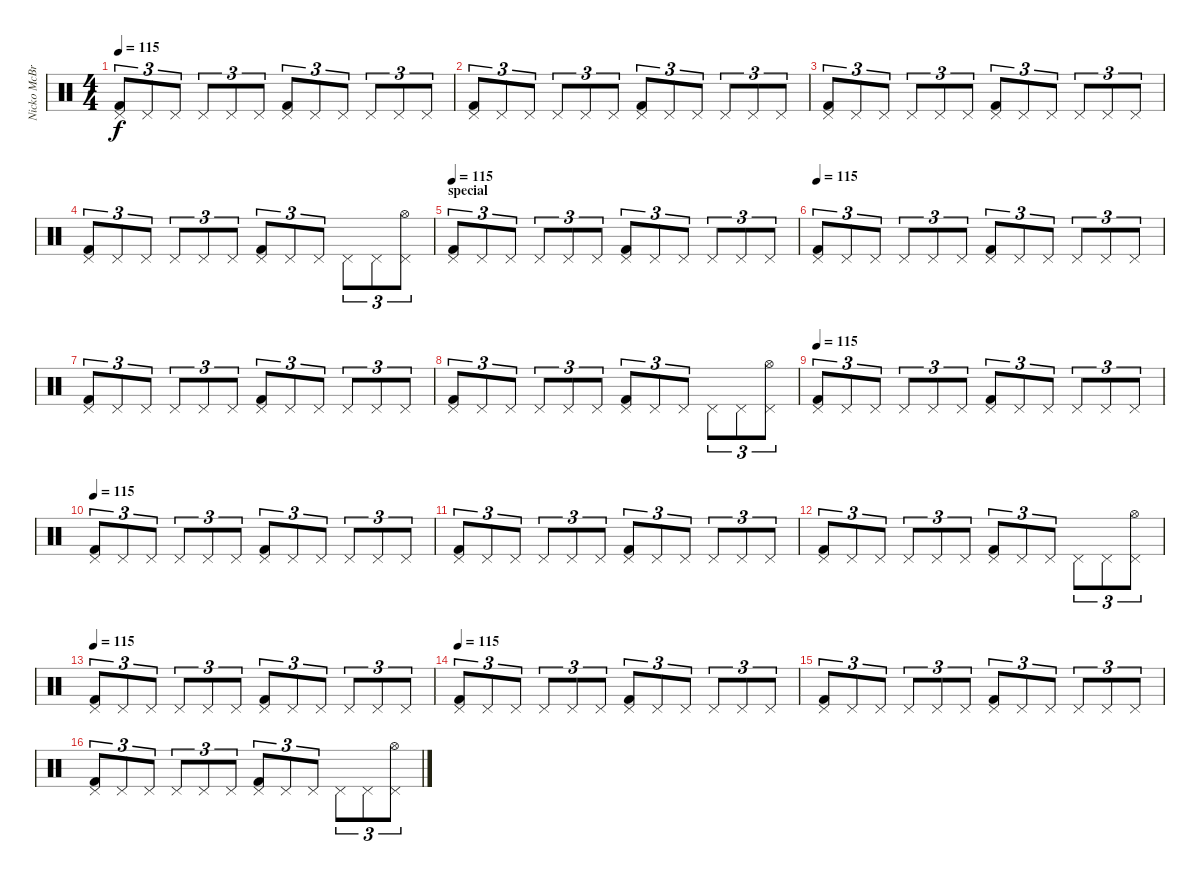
\track ("Nicko McBrain" "Nicko McBr") {instrument percussion}
\staff {score}
\articulation defaults
\ts (4 4)
\tempo 115
\clef neutral
\ks c
("Pedal Hi-Hat (hit)" "Kick (hit) 2").8{tu (3 2) dy f} "Pedal Hi-Hat (hit)".8{tu (3 2)} "Pedal Hi-Hat (hit)".8{tu (3 2)} "Pedal Hi-Hat (hit)".8{tu (3 2)} "Pedal Hi-Hat (hit)".8{tu (3 2)} "Pedal Hi-Hat (hit)".8{tu (3 2)} ("Pedal Hi-Hat (hit)" "Kick (hit) 2").8{tu (3 2)} "Pedal Hi-Hat (hit)".8{tu (3 2)} "Pedal Hi-Hat (hit)".8{tu (3 2)} "Pedal Hi-Hat (hit)".8{tu (3 2)} "Pedal Hi-Hat (hit)".8{tu (3 2)} "Pedal Hi-Hat (hit)".8{tu (3 2)} |
("Pedal Hi-Hat (hit)" "Kick (hit) 2").8{tu (3 2)} "Pedal Hi-Hat (hit)".8{tu (3 2)} "Pedal Hi-Hat (hit)".8{tu (3 2)} "Pedal Hi-Hat (hit)".8{tu (3 2)} "Pedal Hi-Hat (hit)".8{tu (3 2)} "Pedal Hi-Hat (hit)".8{tu (3 2)} ("Pedal Hi-Hat (hit)" "Kick (hit) 2").8{tu (3 2)} "Pedal Hi-Hat (hit)".8{tu (3 2)} "Pedal Hi-Hat (hit)".8{tu (3 2)} "Pedal Hi-Hat (hit)".8{tu (3 2)} "Pedal Hi-Hat (hit)".8{tu (3 2)} "Pedal Hi-Hat (hit)".8{tu (3 2)} |
("Pedal Hi-Hat (hit)" "Kick (hit) 2").8{tu (3 2)} "Pedal Hi-Hat (hit)".8{tu (3 2)} "Pedal Hi-Hat (hit)".8{tu (3 2)} "Pedal Hi-Hat (hit)".8{tu (3 2)} "Pedal Hi-Hat (hit)".8{tu (3 2)} "Pedal Hi-Hat (hit)".8{tu (3 2)} ("Pedal Hi-Hat (hit)" "Kick (hit) 2").8{tu (3 2)} "Pedal Hi-Hat (hit)".8{tu (3 2)} "Pedal Hi-Hat (hit)".8{tu (3 2)} "Pedal Hi-Hat (hit)".8{tu (3 2)} "Pedal Hi-Hat (hit)".8{tu (3 2)} "Pedal Hi-Hat (hit)".8{tu (3 2)} |
("Pedal Hi-Hat (hit)" "Kick (hit) 2").8{tu (3 2)} "Pedal Hi-Hat (hit)".8{tu (3 2)} "Pedal Hi-Hat (hit)".8{tu (3 2)} "Pedal Hi-Hat (hit)".8{tu (3 2)} "Pedal Hi-Hat (hit)".8{tu (3 2)} "Pedal Hi-Hat (hit)".8{tu (3 2)} ("Pedal Hi-Hat (hit)" "Kick (hit) 2").8{tu (3 2)} "Pedal Hi-Hat (hit)".8{tu (3 2)} "Pedal Hi-Hat (hit)".8{tu (3 2)} "Pedal Hi-Hat (hit)".8{tu (3 2)} "Pedal Hi-Hat (hit)".8{tu (3 2)} ("Pedal Hi-Hat (hit)" "Hi-Hat (open)").8{tu (3 2)} |
\section ("" "special")
\tempo 115
("Pedal Hi-Hat (hit)" "Kick (hit) 2").8{tu (3 2)} "Pedal Hi-Hat (hit)".8{tu (3 2)} "Pedal Hi-Hat (hit)".8{tu (3 2)} "Pedal Hi-Hat (hit)".8{tu (3 2)} "Pedal Hi-Hat (hit)".8{tu (3 2)} "Pedal Hi-Hat (hit)".8{tu (3 2)} ("Pedal Hi-Hat (hit)" "Kick (hit) 2").8{tu (3 2)} "Pedal Hi-Hat (hit)".8{tu (3 2)} "Pedal Hi-Hat (hit)".8{tu (3 2)} "Pedal Hi-Hat (hit)".8{tu (3 2)} "Pedal Hi-Hat (hit)".8{tu (3 2)} "Pedal Hi-Hat (hit)".8{tu (3 2)} |
\tempo 115
("Pedal Hi-Hat (hit)" "Kick (hit) 2").8{tu (3 2)} "Pedal Hi-Hat (hit)".8{tu (3 2)} "Pedal Hi-Hat (hit)".8{tu (3 2)} "Pedal Hi-Hat (hit)".8{tu (3 2)} "Pedal Hi-Hat (hit)".8{tu (3 2)} "Pedal Hi-Hat (hit)".8{tu (3 2)} ("Pedal Hi-Hat (hit)" "Kick (hit) 2").8{tu (3 2)} "Pedal Hi-Hat (hit)".8{tu (3 2)} "Pedal Hi-Hat (hit)".8{tu (3 2)} "Pedal Hi-Hat (hit)".8{tu (3 2)} "Pedal Hi-Hat (hit)".8{tu (3 2)} "Pedal Hi-Hat (hit)".8{tu (3 2)} |
("Pedal Hi-Hat (hit)" "Kick (hit) 2").8{tu (3 2)} "Pedal Hi-Hat (hit)".8{tu (3 2)} "Pedal Hi-Hat (hit)".8{tu (3 2)} "Pedal Hi-Hat (hit)".8{tu (3 2)} "Pedal Hi-Hat (hit)".8{tu (3 2)} "Pedal Hi-Hat (hit)".8{tu (3 2)} ("Pedal Hi-Hat (hit)" "Kick (hit) 2").8{tu (3 2)} "Pedal Hi-Hat (hit)".8{tu (3 2)} "Pedal Hi-Hat (hit)".8{tu (3 2)} "Pedal Hi-Hat (hit)".8{tu (3 2)} "Pedal Hi-Hat (hit)".8{tu (3 2)} "Pedal Hi-Hat (hit)".8{tu (3 2)} |
("Pedal Hi-Hat (hit)" "Kick (hit) 2").8{tu (3 2)} "Pedal Hi-Hat (hit)".8{tu (3 2)} "Pedal Hi-Hat (hit)".8{tu (3 2)} "Pedal Hi-Hat (hit)".8{tu (3 2)} "Pedal Hi-Hat (hit)".8{tu (3 2)} "Pedal Hi-Hat (hit)".8{tu (3 2)} ("Pedal Hi-Hat (hit)" "Kick (hit) 2").8{tu (3 2)} "Pedal Hi-Hat (hit)".8{tu (3 2)} "Pedal Hi-Hat (hit)".8{tu (3 2)} "Pedal Hi-Hat (hit)".8{tu (3 2)} "Pedal Hi-Hat (hit)".8{tu (3 2)} ("Pedal Hi-Hat (hit)" "Hi-Hat (open)").8{tu (3 2)} |
\tempo 115
("Pedal Hi-Hat (hit)" "Kick (hit) 2").8{tu (3 2)} "Pedal Hi-Hat (hit)".8{tu (3 2)} "Pedal Hi-Hat (hit)".8{tu (3 2)} "Pedal Hi-Hat (hit)".8{tu (3 2)} "Pedal Hi-Hat (hit)".8{tu (3 2)} "Pedal Hi-Hat (hit)".8{tu (3 2)} ("Pedal Hi-Hat (hit)" "Kick (hit) 2").8{tu (3 2)} "Pedal Hi-Hat (hit)".8{tu (3 2)} "Pedal Hi-Hat (hit)".8{tu (3 2)} "Pedal Hi-Hat (hit)".8{tu (3 2)} "Pedal Hi-Hat (hit)".8{tu (3 2)} "Pedal Hi-Hat (hit)".8{tu (3 2)} |
\tempo 115
("Pedal Hi-Hat (hit)" "Kick (hit) 2").8{tu (3 2)} "Pedal Hi-Hat (hit)".8{tu (3 2)} "Pedal Hi-Hat (hit)".8{tu (3 2)} "Pedal Hi-Hat (hit)".8{tu (3 2)} "Pedal Hi-Hat (hit)".8{tu (3 2)} "Pedal Hi-Hat (hit)".8{tu (3 2)} ("Pedal Hi-Hat (hit)" "Kick (hit) 2").8{tu (3 2)} "Pedal Hi-Hat (hit)".8{tu (3 2)} "Pedal Hi-Hat (hit)".8{tu (3 2)} "Pedal Hi-Hat (hit)".8{tu (3 2)} "Pedal Hi-Hat (hit)".8{tu (3 2)} "Pedal Hi-Hat (hit)".8{tu (3 2)} |
("Pedal Hi-Hat (hit)" "Kick (hit) 2").8{tu (3 2)} "Pedal Hi-Hat (hit)".8{tu (3 2)} "Pedal Hi-Hat (hit)".8{tu (3 2)} "Pedal Hi-Hat (hit)".8{tu (3 2)} "Pedal Hi-Hat (hit)".8{tu (3 2)} "Pedal Hi-Hat (hit)".8{tu (3 2)} ("Pedal Hi-Hat (hit)" "Kick (hit) 2").8{tu (3 2)} "Pedal Hi-Hat (hit)".8{tu (3 2)} "Pedal Hi-Hat (hit)".8{tu (3 2)} "Pedal Hi-Hat (hit)".8{tu (3 2)} "Pedal Hi-Hat (hit)".8{tu (3 2)} "Pedal Hi-Hat (hit)".8{tu (3 2)} |
("Pedal Hi-Hat (hit)" "Kick (hit) 2").8{tu (3 2)} "Pedal Hi-Hat (hit)".8{tu (3 2)} "Pedal Hi-Hat (hit)".8{tu (3 2)} "Pedal Hi-Hat (hit)".8{tu (3 2)} "Pedal Hi-Hat (hit)".8{tu (3 2)} "Pedal Hi-Hat (hit)".8{tu (3 2)} ("Pedal Hi-Hat (hit)" "Kick (hit) 2").8{tu (3 2)} "Pedal Hi-Hat (hit)".8{tu (3 2)} "Pedal Hi-Hat (hit)".8{tu (3 2)} "Pedal Hi-Hat (hit)".8{tu (3 2)} "Pedal Hi-Hat (hit)".8{tu (3 2)} ("Pedal Hi-Hat (hit)" "Hi-Hat (open)").8{tu (3 2)} |
\tempo 115
("Pedal Hi-Hat (hit)" "Kick (hit) 2").8{tu (3 2)} "Pedal Hi-Hat (hit)".8{tu (3 2)} "Pedal Hi-Hat (hit)".8{tu (3 2)} "Pedal Hi-Hat (hit)".8{tu (3 2)} "Pedal Hi-Hat (hit)".8{tu (3 2)} "Pedal Hi-Hat (hit)".8{tu (3 2)} ("Pedal Hi-Hat (hit)" "Kick (hit) 2").8{tu (3 2)} "Pedal Hi-Hat (hit)".8{tu (3 2)} "Pedal Hi-Hat (hit)".8{tu (3 2)} "Pedal Hi-Hat (hit)".8{tu (3 2)} "Pedal Hi-Hat (hit)".8{tu (3 2)} "Pedal Hi-Hat (hit)".8{tu (3 2)} |
\tempo 115
("Pedal Hi-Hat (hit)" "Kick (hit) 2").8{tu (3 2)} "Pedal Hi-Hat (hit)".8{tu (3 2)} "Pedal Hi-Hat (hit)".8{tu (3 2)} "Pedal Hi-Hat (hit)".8{tu (3 2)} "Pedal Hi-Hat (hit)".8{tu (3 2)} "Pedal Hi-Hat (hit)".8{tu (3 2)} ("Pedal Hi-Hat (hit)" "Kick (hit) 2").8{tu (3 2)} "Pedal Hi-Hat (hit)".8{tu (3 2)} "Pedal Hi-Hat (hit)".8{tu (3 2)} "Pedal Hi-Hat (hit)".8{tu (3 2)} "Pedal Hi-Hat (hit)".8{tu (3 2)} "Pedal Hi-Hat (hit)".8{tu (3 2)} |
("Pedal Hi-Hat (hit)" "Kick (hit) 2").8{tu (3 2)} "Pedal Hi-Hat (hit)".8{tu (3 2)} "Pedal Hi-Hat (hit)".8{tu (3 2)} "Pedal Hi-Hat (hit)".8{tu (3 2)} "Pedal Hi-Hat (hit)".8{tu (3 2)} "Pedal Hi-Hat (hit)".8{tu (3 2)} ("Pedal Hi-Hat (hit)" "Kick (hit) 2").8{tu (3 2)} "Pedal Hi-Hat (hit)".8{tu (3 2)} "Pedal Hi-Hat (hit)".8{tu (3 2)} "Pedal Hi-Hat (hit)".8{tu (3 2)} "Pedal Hi-Hat (hit)".8{tu (3 2)} "Pedal Hi-Hat (hit)".8{tu (3 2)} |
("Pedal Hi-Hat (hit)" "Kick (hit) 2").8{tu (3 2)} "Pedal Hi-Hat (hit)".8{tu (3 2)} "Pedal Hi-Hat (hit)".8{tu (3 2)} "Pedal Hi-Hat (hit)".8{tu (3 2)} "Pedal Hi-Hat (hit)".8{tu (3 2)} "Pedal Hi-Hat (hit)".8{tu (3 2)} ("Pedal Hi-Hat (hit)" "Kick (hit) 2").8{tu (3 2)} "Pedal Hi-Hat (hit)".8{tu (3 2)} "Pedal Hi-Hat (hit)".8{tu (3 2)} "Pedal Hi-Hat (hit)".8{tu (3 2)} "Pedal Hi-Hat (hit)".8{tu (3 2)} ("Pedal Hi-Hat (hit)" "Hi-Hat (open)").8{tu (3 2)}
